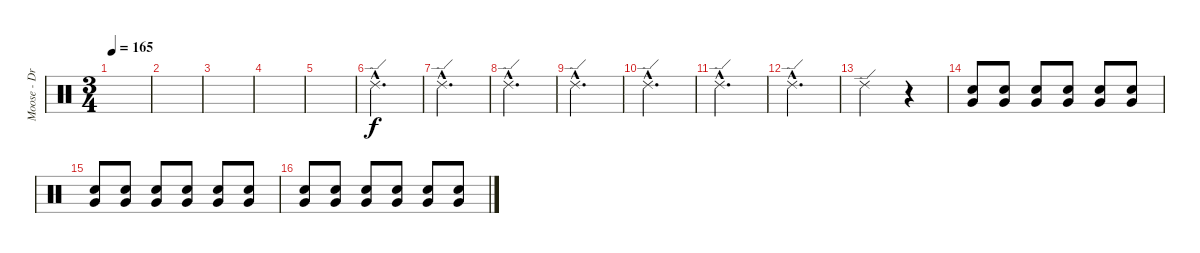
\track ("Moose - Drums" "Moose - Dr") {instrument percussion}
\staff {score}
\articulation defaults
\ts (3 4)
\tempo 165
\clef neutral
\ks c
|
|
|
|
|
"Ride (edge) 2"{hac}.2{d} |
"Ride (edge) 2"{hac}.2{d} |
"Ride (edge) 2"{hac}.2{d} |
"Ride (edge) 2"{hac}.2{d} |
"Ride (edge) 2"{hac}.2{d} |
"Ride (edge) 2"{hac}.2{d} |
"Ride (edge) 2"{hac}.2{d} |
"Ride (edge) 2".2 r.4{volume 0} |
("Electric Snare (hit)" "Very Low Tom (hit)").8{volume 4} ("Electric Snare (hit)" "Very Low Tom (hit)").8 ("Electric Snare (hit)" "Very Low Tom (hit)").8 ("Electric Snare (hit)" "Very Low Tom (hit)").8 ("Electric Snare (hit)" "Very Low Tom (hit)").8 ("Electric Snare (hit)" "Very Low Tom (hit)").8 |
("Electric Snare (hit)" "Very Low Tom (hit)").8 ("Electric Snare (hit)" "Very Low Tom (hit)").8 ("Electric Snare (hit)" "Very Low Tom (hit)").8 ("Electric Snare (hit)" "Very Low Tom (hit)").8 ("Electric Snare (hit)" "Very Low Tom (hit)").8 ("Electric Snare (hit)" "Very Low Tom (hit)").8 |
("Electric Snare (hit)" "Very Low Tom (hit)").8 ("Electric Snare (hit)" "Very Low Tom (hit)").8 ("Electric Snare (hit)" "Very Low Tom (hit)").8 ("Electric Snare (hit)" "Very Low Tom (hit)").8 ("Electric Snare (hit)" "Very Low Tom (hit)").8 ("Electric Snare (hit)" "Very Low Tom (hit)").8
